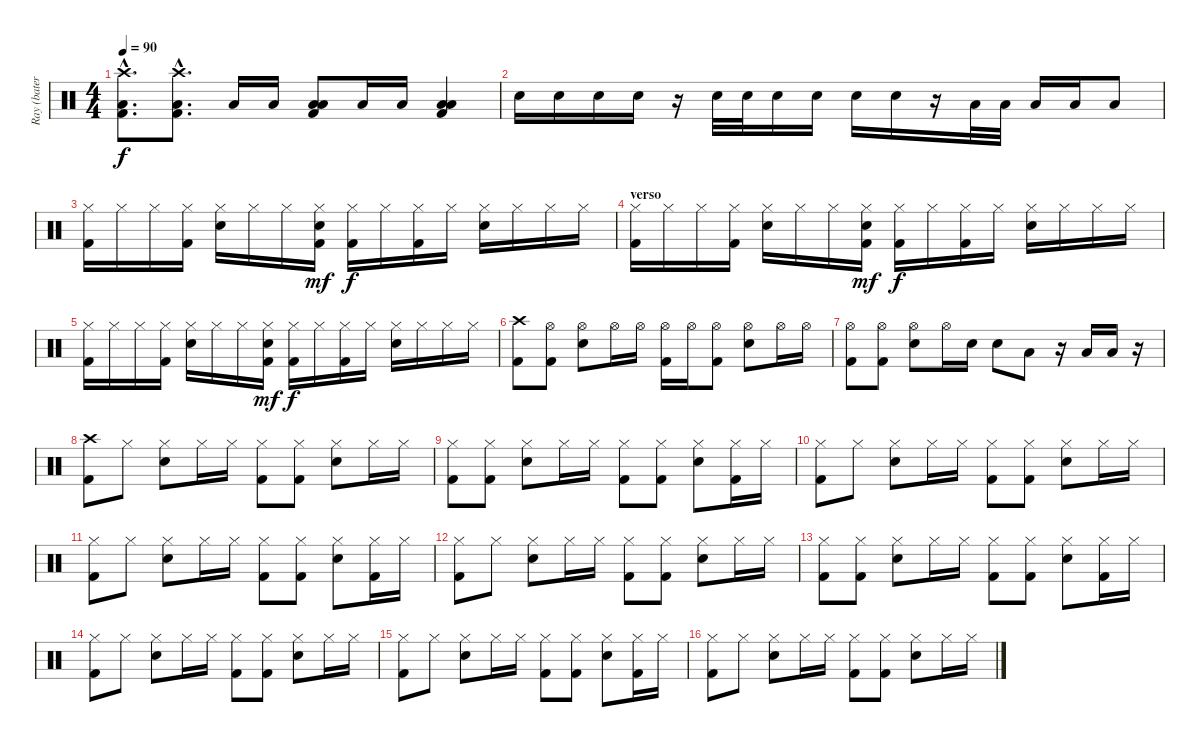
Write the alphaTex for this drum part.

\track ("Ray (batería)" "Ray (bater") {instrument percussion}
\staff {score}
\articulation defaults
\ts (4 4)
\tempo 90
\clef neutral
\ks c
("Crash high (hit)"{hac} "Low Floor Tom (hit)"{hac} "Kick (hit) 2"{hac}).8{d dy f} ("Crash high (hit)"{hac} "Low Floor Tom (hit)"{hac} "Kick (hit) 2"{hac}).8{d} "Low Tom (hit)".16 "Low Tom (hit)".16 ("Low Tom (hit)" "Low Floor Tom (hit)" "Kick (hit) 2").8 "Low Tom (hit)".16 "Low Tom (hit)".16 ("Low Tom (hit)" "Low Floor Tom (hit)" "Kick (hit) 2").4 |
"Snare (hit) 2".16 "Snare (hit) 2".16 "Snare (hit) 2".16 "Snare (hit) 2".16 r.16 "Snare (hit) 2".32 "Snare (hit) 2".32 "Snare (hit) 2".16 "Snare (hit) 2".16 "Snare (hit) 2".16 "Snare (hit) 2".16 r.16 "Low Tom (hit)".32 "Low Tom (hit)".32 "Low Tom (hit)".16 "Low Tom (hit)".16 "Low Tom (hit)".8 |
("Hi-Hat (closed)" "Kick (hit) 2").16 "Hi-Hat (closed)".16 "Hi-Hat (closed)".16 ("Hi-Hat (closed)" "Kick (hit) 2").16 ("Hi-Hat (closed)" "Snare (hit) 2").16 "Hi-Hat (closed)".16 "Hi-Hat (closed)".16 ("Hi-Hat (closed)" "Snare (hit) 2" "Kick (hit) 2").16{dy mf} ("Hi-Hat (closed)" "Kick (hit) 2").16{dy f} "Hi-Hat (closed)".16 ("Hi-Hat (closed)" "Kick (hit) 2").16 "Hi-Hat (closed)".16 ("Hi-Hat (closed)" "Snare (hit) 2").16 "Hi-Hat (closed)".16 "Hi-Hat (closed)".16 "Hi-Hat (closed)".16 |
\section ("" "verso")
("Hi-Hat (closed)" "Kick (hit) 2").16 "Hi-Hat (closed)".16 "Hi-Hat (closed)".16 ("Hi-Hat (closed)" "Kick (hit) 2").16 ("Hi-Hat (closed)" "Snare (hit) 2").16 "Hi-Hat (closed)".16 "Hi-Hat (closed)".16 ("Hi-Hat (closed)" "Snare (hit) 2" "Kick (hit) 2").16{dy mf} ("Hi-Hat (closed)" "Kick (hit) 2").16{dy f} "Hi-Hat (closed)".16 ("Hi-Hat (closed)" "Kick (hit) 2").16 "Hi-Hat (closed)".16 ("Hi-Hat (closed)" "Snare (hit) 2").16 "Hi-Hat (closed)".16 "Hi-Hat (closed)".16 "Hi-Hat (closed)".16 |
("Hi-Hat (closed)" "Kick (hit) 2").16 "Hi-Hat (closed)".16 "Hi-Hat (closed)".16 ("Hi-Hat (closed)" "Kick (hit) 2").16 ("Hi-Hat (closed)" "Snare (hit) 2").16 "Hi-Hat (closed)".16 "Hi-Hat (closed)".16 ("Hi-Hat (closed)" "Snare (hit) 2" "Kick (hit) 2").16{dy mf} ("Hi-Hat (closed)" "Kick (hit) 2").16{dy f} "Hi-Hat (closed)".16 ("Hi-Hat (closed)" "Kick (hit) 2").16 "Hi-Hat (closed)".16 ("Hi-Hat (closed)" "Snare (hit) 2").16 "Hi-Hat (closed)".16 "Hi-Hat (closed)".16 "Hi-Hat (closed)".16 |
("Crash high (hit)" "Kick (hit) 2").8 ("Hi-Hat (open)" "Kick (hit) 2").8 ("Hi-Hat (open)" "Snare (hit) 2").8 "Hi-Hat (open)".16 "Hi-Hat (open)".16 ("Hi-Hat (open)" "Kick (hit) 2").16 "Hi-Hat (open)".16 ("Hi-Hat (open)" "Kick (hit) 2").8 ("Hi-Hat (open)" "Snare (hit) 2").8 "Hi-Hat (open)".16 "Hi-Hat (open)".16 |
("Hi-Hat (open)" "Kick (hit) 2").8 ("Hi-Hat (open)" "Kick (hit) 2").8 ("Hi-Hat (open)" "Snare (hit) 2").8 "Hi-Hat (open)".16 "Snare (hit) 2".16 "Snare (hit) 2".8 "Low Tom (hit)".8 r.16 "Low Tom (hit)".16 "Low Tom (hit)".16 r.16 |
("Crash high (hit)" "Kick (hit) 2").8 "Hi-Hat (closed)".8 ("Hi-Hat (closed)" "Snare (hit) 2").8 "Hi-Hat (closed)".16 "Hi-Hat (closed)".16 ("Hi-Hat (closed)" "Kick (hit) 2").8 ("Hi-Hat (closed)" "Kick (hit) 2").8 ("Hi-Hat (closed)" "Snare (hit) 2").8 "Hi-Hat (closed)".16 "Hi-Hat (closed)".16 |
("Hi-Hat (closed)" "Kick (hit) 2").8 ("Hi-Hat (closed)" "Kick (hit) 2").8 ("Hi-Hat (closed)" "Snare (hit) 2").8 "Hi-Hat (closed)".16 "Hi-Hat (closed)".16 ("Hi-Hat (closed)" "Kick (hit) 2").8 ("Hi-Hat (closed)" "Kick (hit) 2").8 ("Hi-Hat (closed)" "Snare (hit) 2").8 ("Hi-Hat (closed)" "Kick (hit) 2").16 "Hi-Hat (closed)".16 |
("Hi-Hat (closed)" "Kick (hit) 2").8 "Hi-Hat (closed)".8 ("Hi-Hat (closed)" "Snare (hit) 2").8 "Hi-Hat (closed)".16 "Hi-Hat (closed)".16 ("Hi-Hat (closed)" "Kick (hit) 2").8 ("Hi-Hat (closed)" "Kick (hit) 2").8 ("Hi-Hat (closed)" "Snare (hit) 2").8 "Hi-Hat (closed)".16 "Hi-Hat (closed)".16 |
("Hi-Hat (closed)" "Kick (hit) 2").8 "Hi-Hat (closed)".8 ("Hi-Hat (closed)" "Snare (hit) 2").8 "Hi-Hat (closed)".16 "Hi-Hat (closed)".16 ("Hi-Hat (closed)" "Kick (hit) 2").8 ("Hi-Hat (closed)" "Kick (hit) 2").8 ("Hi-Hat (closed)" "Snare (hit) 2").8 ("Hi-Hat (closed)" "Kick (hit) 2").16 "Hi-Hat (closed)".16 |
("Hi-Hat (closed)" "Kick (hit) 2").8 "Hi-Hat (closed)".8 ("Hi-Hat (closed)" "Snare (hit) 2").8 "Hi-Hat (closed)".16 "Hi-Hat (closed)".16 ("Hi-Hat (closed)" "Kick (hit) 2").8 ("Hi-Hat (closed)" "Kick (hit) 2").8 ("Hi-Hat (closed)" "Snare (hit) 2").8 "Hi-Hat (closed)".16 "Hi-Hat (closed)".16 |
("Hi-Hat (closed)" "Kick (hit) 2").8 ("Hi-Hat (closed)" "Kick (hit) 2").8 ("Hi-Hat (closed)" "Snare (hit) 2").8 "Hi-Hat (closed)".16 "Hi-Hat (closed)".16 ("Hi-Hat (closed)" "Kick (hit) 2").8 ("Hi-Hat (closed)" "Kick (hit) 2").8 ("Hi-Hat (closed)" "Snare (hit) 2").8 ("Hi-Hat (closed)" "Kick (hit) 2").16 "Hi-Hat (closed)".16 |
("Hi-Hat (closed)" "Kick (hit) 2").8 "Hi-Hat (closed)".8 ("Hi-Hat (closed)" "Snare (hit) 2").8 "Hi-Hat (closed)".16 "Hi-Hat (closed)".16 ("Hi-Hat (closed)" "Kick (hit) 2").8 ("Hi-Hat (closed)" "Kick (hit) 2").8 ("Hi-Hat (closed)" "Snare (hit) 2").8 "Hi-Hat (closed)".16 "Hi-Hat (closed)".16 |
("Hi-Hat (closed)" "Kick (hit) 2").8 "Hi-Hat (closed)".8 ("Hi-Hat (closed)" "Snare (hit) 2").8 "Hi-Hat (closed)".16 "Hi-Hat (closed)".16 ("Hi-Hat (closed)" "Kick (hit) 2").8 ("Hi-Hat (closed)" "Kick (hit) 2").8 ("Hi-Hat (closed)" "Snare (hit) 2").8 ("Hi-Hat (closed)" "Kick (hit) 2").16 "Hi-Hat (closed)".16 |
("Hi-Hat (closed)" "Kick (hit) 2").8 "Hi-Hat (closed)".8 ("Hi-Hat (closed)" "Snare (hit) 2").8 "Hi-Hat (closed)".16 "Hi-Hat (closed)".16 ("Hi-Hat (closed)" "Kick (hit) 2").8 ("Hi-Hat (closed)" "Kick (hit) 2").8 ("Hi-Hat (closed)" "Snare (hit) 2").8 "Hi-Hat (closed)".16 "Hi-Hat (closed)".16
